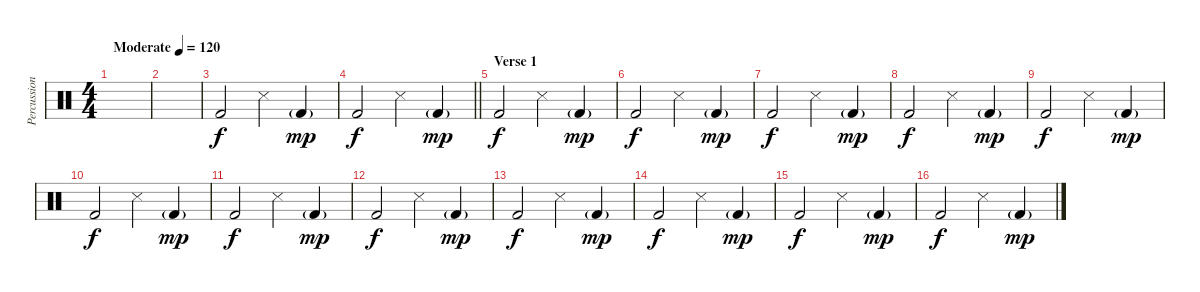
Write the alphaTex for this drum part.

\track ("Percussion" "Percussion") {instrument percussion}
\staff {score}
\articulation defaults
\ts (4 4)
\tempo (120 "Moderate")
\clef neutral
\ks c
|
|
"Kick (hit) 2".2 "Snare (side stick) 3".4 "Kick (hit) 2"{g}.4{dy mp} |
\barLineRight lightlight "Kick (hit) 2".2{dy f} "Snare (side stick) 3".4 "Kick (hit) 2"{g}.4{dy mp}
|
\section ("" "Verse 1")
"Kick (hit) 2".2{dy f} "Snare (side stick) 3".4 "Kick (hit) 2"{g}.4{dy mp} |
"Kick (hit) 2".2{dy f} "Snare (side stick) 3".4 "Kick (hit) 2"{g}.4{dy mp} |
"Kick (hit) 2".2{dy f} "Snare (side stick) 3".4 "Kick (hit) 2"{g}.4{dy mp} |
"Kick (hit) 2".2{dy f} "Snare (side stick) 3".4 "Kick (hit) 2"{g}.4{dy mp} |
"Kick (hit) 2".2{dy f} "Snare (side stick) 3".4 "Kick (hit) 2"{g}.4{dy mp} |
"Kick (hit) 2".2{dy f} "Snare (side stick) 3".4 "Kick (hit) 2"{g}.4{dy mp} |
"Kick (hit) 2".2{dy f} "Snare (side stick) 3".4 "Kick (hit) 2"{g}.4{dy mp} |
"Kick (hit) 2".2{dy f} "Snare (side stick) 3".4 "Kick (hit) 2"{g}.4{dy mp} |
"Kick (hit) 2".2{dy f} "Snare (side stick) 3".4 "Kick (hit) 2"{g}.4{dy mp} |
"Kick (hit) 2".2{dy f} "Snare (side stick) 3".4 "Kick (hit) 2"{g}.4{dy mp} |
"Kick (hit) 2".2{dy f} "Snare (side stick) 3".4 "Kick (hit) 2"{g}.4{dy mp} |
"Kick (hit) 2".2{dy f} "Snare (side stick) 3".4 "Kick (hit) 2"{g}.4{dy mp}
